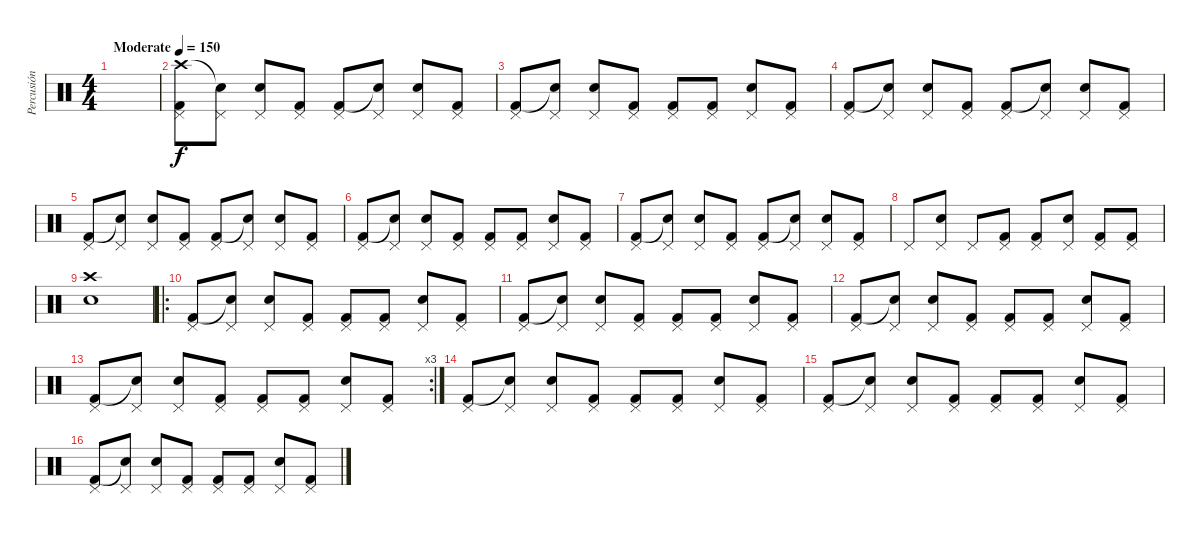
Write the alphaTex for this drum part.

\track ("Percusión" "Percusión") {instrument percussion}
\staff {score}
\articulation defaults
\ts (4 4)
\tempo (150 "Moderate")
\clef neutral
\ks c
|
("Crash high (hit)" "Kick (hit) 2" "Pedal Hi-Hat (hit)").8 ("Snare (hit)"{t} "Pedal Hi-Hat (hit)").8 ("Electric Snare (hit)" "Pedal Hi-Hat (hit)").8 ("Kick (hit) 2" "Pedal Hi-Hat (hit)").8 ("Kick (hit) 2" "Pedal Hi-Hat (hit)").8 ("Snare (hit)"{t} "Pedal Hi-Hat (hit)").8 ("Electric Snare (hit)" "Pedal Hi-Hat (hit)").8 ("Kick (hit) 2" "Pedal Hi-Hat (hit)").8 |
("Kick (hit) 2" "Pedal Hi-Hat (hit)").8 ("Snare (hit)"{t} "Pedal Hi-Hat (hit)").8 ("Electric Snare (hit)" "Pedal Hi-Hat (hit)").8 ("Kick (hit) 2" "Pedal Hi-Hat (hit)").8 ("Kick (hit) 2" "Pedal Hi-Hat (hit)").8 ("Kick (hit) 2" "Pedal Hi-Hat (hit)").8 ("Electric Snare (hit)" "Pedal Hi-Hat (hit)").8 ("Kick (hit) 2" "Pedal Hi-Hat (hit)").8 |
("Kick (hit) 2" "Pedal Hi-Hat (hit)").8 ("Snare (hit)"{t} "Pedal Hi-Hat (hit)").8 ("Electric Snare (hit)" "Pedal Hi-Hat (hit)").8 ("Kick (hit) 2" "Pedal Hi-Hat (hit)").8 ("Kick (hit) 2" "Pedal Hi-Hat (hit)").8 ("Snare (hit)"{t} "Pedal Hi-Hat (hit)").8 ("Electric Snare (hit)" "Pedal Hi-Hat (hit)").8 ("Kick (hit) 2" "Pedal Hi-Hat (hit)").8 |
("Kick (hit) 2" "Pedal Hi-Hat (hit)").8 ("Snare (hit)"{t} "Pedal Hi-Hat (hit)").8 ("Electric Snare (hit)" "Pedal Hi-Hat (hit)").8 ("Kick (hit) 2" "Pedal Hi-Hat (hit)").8 ("Kick (hit) 2" "Pedal Hi-Hat (hit)").8 ("Snare (hit)"{t} "Pedal Hi-Hat (hit)").8 ("Electric Snare (hit)" "Pedal Hi-Hat (hit)").8 ("Kick (hit) 2" "Pedal Hi-Hat (hit)").8 |
("Kick (hit) 2" "Pedal Hi-Hat (hit)").8 ("Snare (hit)"{t} "Pedal Hi-Hat (hit)").8 ("Electric Snare (hit)" "Pedal Hi-Hat (hit)").8 ("Kick (hit) 2" "Pedal Hi-Hat (hit)").8 ("Kick (hit) 2" "Pedal Hi-Hat (hit)").8 ("Kick (hit) 2" "Pedal Hi-Hat (hit)").8 ("Electric Snare (hit)" "Pedal Hi-Hat (hit)").8 ("Kick (hit) 2" "Pedal Hi-Hat (hit)").8 |
("Kick (hit) 2" "Pedal Hi-Hat (hit)").8 ("Snare (hit)"{t} "Pedal Hi-Hat (hit)").8 ("Electric Snare (hit)" "Pedal Hi-Hat (hit)").8 ("Kick (hit) 2" "Pedal Hi-Hat (hit)").8 ("Kick (hit) 2" "Pedal Hi-Hat (hit)").8 ("Snare (hit)"{t} "Pedal Hi-Hat (hit)").8 ("Electric Snare (hit)" "Pedal Hi-Hat (hit)").8 ("Kick (hit) 2" "Pedal Hi-Hat (hit)").8 |
"Pedal Hi-Hat (hit)".8 ("Electric Snare (hit)" "Pedal Hi-Hat (hit)").8 "Pedal Hi-Hat (hit)".8 ("Kick (hit) 2" "Pedal Hi-Hat (hit)").8 ("Kick (hit) 2" "Pedal Hi-Hat (hit)").8 ("Electric Snare (hit)" "Pedal Hi-Hat (hit)").8 ("Kick (hit) 2" "Pedal Hi-Hat (hit)").8 ("Kick (hit) 2" "Pedal Hi-Hat (hit)").8 |
("Electric Snare (hit)" "Crash high (hit)").1 |
\ro
("Kick (hit) 2" "Pedal Hi-Hat (hit)").8 ("Snare (hit)"{t} "Pedal Hi-Hat (hit)").8 ("Electric Snare (hit)" "Pedal Hi-Hat (hit)").8 ("Kick (hit) 2" "Pedal Hi-Hat (hit)").8 ("Kick (hit) 2" "Pedal Hi-Hat (hit)").8 ("Kick (hit) 2" "Pedal Hi-Hat (hit)").8 ("Electric Snare (hit)" "Pedal Hi-Hat (hit)").8 ("Kick (hit) 2" "Pedal Hi-Hat (hit)").8 |
("Kick (hit) 2" "Pedal Hi-Hat (hit)").8 ("Snare (hit)"{t} "Pedal Hi-Hat (hit)").8 ("Electric Snare (hit)" "Pedal Hi-Hat (hit)").8 ("Kick (hit) 2" "Pedal Hi-Hat (hit)").8 ("Kick (hit) 2" "Pedal Hi-Hat (hit)").8 ("Kick (hit) 2" "Pedal Hi-Hat (hit)").8 ("Electric Snare (hit)" "Pedal Hi-Hat (hit)").8 ("Kick (hit) 2" "Pedal Hi-Hat (hit)").8 |
("Kick (hit) 2" "Pedal Hi-Hat (hit)").8 ("Snare (hit)"{t} "Pedal Hi-Hat (hit)").8 ("Electric Snare (hit)" "Pedal Hi-Hat (hit)").8 ("Kick (hit) 2" "Pedal Hi-Hat (hit)").8 ("Kick (hit) 2" "Pedal Hi-Hat (hit)").8 ("Kick (hit) 2" "Pedal Hi-Hat (hit)").8 ("Electric Snare (hit)" "Pedal Hi-Hat (hit)").8 ("Kick (hit) 2" "Pedal Hi-Hat (hit)").8 |
\rc 3
("Kick (hit) 2" "Pedal Hi-Hat (hit)").8 ("Snare (hit)"{t} "Pedal Hi-Hat (hit)").8 ("Electric Snare (hit)" "Pedal Hi-Hat (hit)").8 ("Kick (hit) 2" "Pedal Hi-Hat (hit)").8 ("Kick (hit) 2" "Pedal Hi-Hat (hit)").8 ("Kick (hit) 2" "Pedal Hi-Hat (hit)").8 ("Electric Snare (hit)" "Pedal Hi-Hat (hit)").8 ("Kick (hit) 2" "Pedal Hi-Hat (hit)").8 |
("Kick (hit) 2" "Pedal Hi-Hat (hit)").8 ("Snare (hit)"{t} "Pedal Hi-Hat (hit)").8 ("Electric Snare (hit)" "Pedal Hi-Hat (hit)").8 ("Kick (hit) 2" "Pedal Hi-Hat (hit)").8 ("Kick (hit) 2" "Pedal Hi-Hat (hit)").8 ("Kick (hit) 2" "Pedal Hi-Hat (hit)").8 ("Electric Snare (hit)" "Pedal Hi-Hat (hit)").8 ("Kick (hit) 2" "Pedal Hi-Hat (hit)").8 |
("Kick (hit) 2" "Pedal Hi-Hat (hit)").8 ("Snare (hit)"{t} "Pedal Hi-Hat (hit)").8 ("Electric Snare (hit)" "Pedal Hi-Hat (hit)").8 ("Kick (hit) 2" "Pedal Hi-Hat (hit)").8 ("Kick (hit) 2" "Pedal Hi-Hat (hit)").8 ("Kick (hit) 2" "Pedal Hi-Hat (hit)").8 ("Electric Snare (hit)" "Pedal Hi-Hat (hit)").8 ("Kick (hit) 2" "Pedal Hi-Hat (hit)").8 |
("Kick (hit) 2" "Pedal Hi-Hat (hit)").8 ("Snare (hit)"{t} "Pedal Hi-Hat (hit)").8 ("Electric Snare (hit)" "Pedal Hi-Hat (hit)").8 ("Kick (hit) 2" "Pedal Hi-Hat (hit)").8 ("Kick (hit) 2" "Pedal Hi-Hat (hit)").8 ("Kick (hit) 2" "Pedal Hi-Hat (hit)").8 ("Electric Snare (hit)" "Pedal Hi-Hat (hit)").8 ("Kick (hit) 2" "Pedal Hi-Hat (hit)").8
